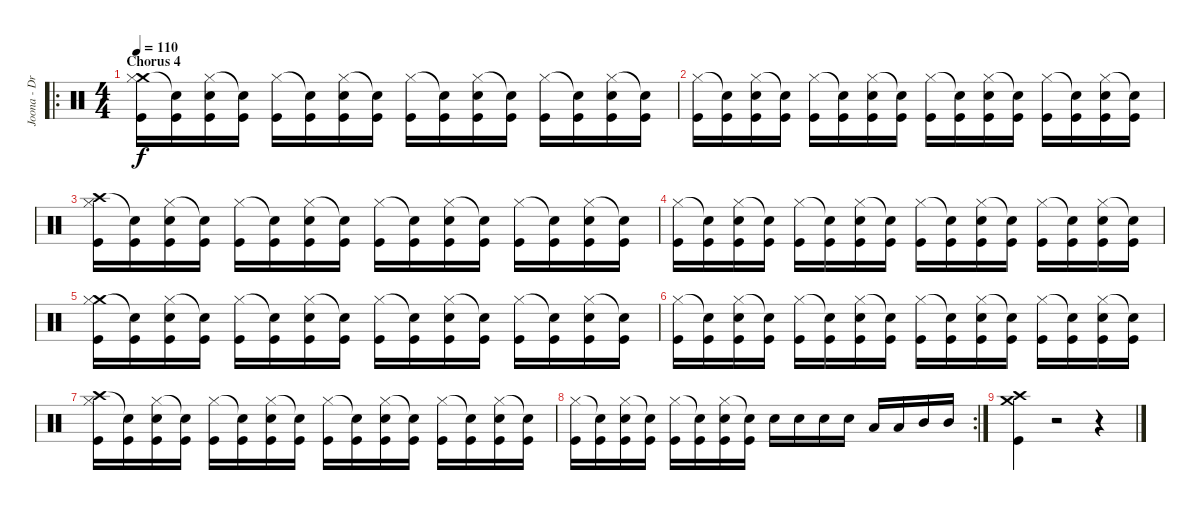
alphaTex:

\track ("Joona - Drums" "Joona - Dr") {instrument percussion}
\staff {score}
\articulation defaults
\ro
\ts (4 4)
\section ("" "Chorus 4")
\tempo 110
\clef neutral
\ks c
("Crash medium (hit)" "Hi-Hat (closed)" "Kick (hit)").16{dy f} ("Snare (hit)"{t} "Kick (hit)").16 ("Hi-Hat (closed)" "Snare (hit) 2" "Kick (hit)").16 ("Snare (hit)"{t} "Kick (hit)").16 ("Hi-Hat (closed)" "Kick (hit)").16 ("Snare (hit)"{t} "Kick (hit)").16 ("Hi-Hat (closed)" "Snare (hit) 2" "Kick (hit)").16 ("Snare (hit)"{t} "Kick (hit)").16 ("Hi-Hat (closed)" "Kick (hit)").16 ("Snare (hit)"{t} "Kick (hit)").16 ("Hi-Hat (closed)" "Snare (hit) 2" "Kick (hit)").16 ("Snare (hit)"{t} "Kick (hit)").16 ("Hi-Hat (closed)" "Kick (hit)").16 ("Snare (hit)"{t} "Kick (hit)").16 ("Hi-Hat (closed)" "Snare (hit) 2" "Kick (hit)").16 ("Snare (hit)"{t} "Kick (hit)").16 |
("Hi-Hat (closed)" "Kick (hit)").16 ("Snare (hit)"{t} "Kick (hit)").16 ("Hi-Hat (closed)" "Snare (hit) 2" "Kick (hit)").16 ("Snare (hit)"{t} "Kick (hit)").16 ("Hi-Hat (closed)" "Kick (hit)").16 ("Snare (hit)"{t} "Kick (hit)").16 ("Hi-Hat (closed)" "Snare (hit) 2" "Kick (hit)").16 ("Snare (hit)"{t} "Kick (hit)").16 ("Hi-Hat (closed)" "Kick (hit)").16 ("Snare (hit)"{t} "Kick (hit)").16 ("Hi-Hat (closed)" "Snare (hit) 2" "Kick (hit)").16 ("Snare (hit)"{t} "Kick (hit)").16 ("Hi-Hat (closed)" "Kick (hit)").16 ("Snare (hit)"{t} "Kick (hit)").16 ("Hi-Hat (closed)" "Snare (hit) 2" "Kick (hit)").16 ("Snare (hit)"{t} "Kick (hit)").16 |
("Crash high (hit)" "Hi-Hat (closed)" "Kick (hit)").16 ("Snare (hit)"{t} "Kick (hit)").16 ("Hi-Hat (closed)" "Snare (hit) 2" "Kick (hit)").16 ("Snare (hit)"{t} "Kick (hit)").16 ("Hi-Hat (closed)" "Kick (hit)").16 ("Snare (hit)"{t} "Kick (hit)").16 ("Hi-Hat (closed)" "Snare (hit) 2" "Kick (hit)").16 ("Snare (hit)"{t} "Kick (hit)").16 ("Hi-Hat (closed)" "Kick (hit)").16 ("Snare (hit)"{t} "Kick (hit)").16 ("Hi-Hat (closed)" "Snare (hit) 2" "Kick (hit)").16 ("Snare (hit)"{t} "Kick (hit)").16 ("Hi-Hat (closed)" "Kick (hit)").16 ("Snare (hit)"{t} "Kick (hit)").16 ("Hi-Hat (closed)" "Snare (hit) 2" "Kick (hit)").16 ("Snare (hit)"{t} "Kick (hit)").16 |
("Hi-Hat (closed)" "Kick (hit)").16 ("Snare (hit)"{t} "Kick (hit)").16 ("Hi-Hat (closed)" "Snare (hit) 2" "Kick (hit)").16 ("Snare (hit)"{t} "Kick (hit)").16 ("Hi-Hat (closed)" "Kick (hit)").16 ("Snare (hit)"{t} "Kick (hit)").16 ("Hi-Hat (closed)" "Snare (hit) 2" "Kick (hit)").16 ("Snare (hit)"{t} "Kick (hit)").16 ("Hi-Hat (closed)" "Kick (hit)").16 ("Snare (hit)"{t} "Kick (hit)").16 ("Hi-Hat (closed)" "Snare (hit) 2" "Kick (hit)").16 ("Snare (hit)"{t} "Kick (hit)").16 ("Hi-Hat (closed)" "Kick (hit)").16 ("Snare (hit)"{t} "Kick (hit)").16 ("Hi-Hat (closed)" "Snare (hit) 2" "Kick (hit)").16 ("Snare (hit)"{t} "Kick (hit)").16 |
("Crash medium (hit)" "Hi-Hat (closed)" "Kick (hit)").16 ("Snare (hit)"{t} "Kick (hit)").16 ("Hi-Hat (closed)" "Snare (hit) 2" "Kick (hit)").16 ("Snare (hit)"{t} "Kick (hit)").16 ("Hi-Hat (closed)" "Kick (hit)").16 ("Snare (hit)"{t} "Kick (hit)").16 ("Hi-Hat (closed)" "Snare (hit) 2" "Kick (hit)").16 ("Snare (hit)"{t} "Kick (hit)").16 ("Hi-Hat (closed)" "Kick (hit)").16 ("Snare (hit)"{t} "Kick (hit)").16 ("Hi-Hat (closed)" "Snare (hit) 2" "Kick (hit)").16 ("Snare (hit)"{t} "Kick (hit)").16 ("Hi-Hat (closed)" "Kick (hit)").16 ("Snare (hit)"{t} "Kick (hit)").16 ("Hi-Hat (closed)" "Snare (hit) 2" "Kick (hit)").16 ("Snare (hit)"{t} "Kick (hit)").16 |
("Hi-Hat (closed)" "Kick (hit)").16 ("Snare (hit)"{t} "Kick (hit)").16 ("Hi-Hat (closed)" "Snare (hit) 2" "Kick (hit)").16 ("Snare (hit)"{t} "Kick (hit)").16 ("Hi-Hat (closed)" "Kick (hit)").16 ("Snare (hit)"{t} "Kick (hit)").16 ("Hi-Hat (closed)" "Snare (hit) 2" "Kick (hit)").16 ("Snare (hit)"{t} "Kick (hit)").16 ("Hi-Hat (closed)" "Kick (hit)").16 ("Snare (hit)"{t} "Kick (hit)").16 ("Hi-Hat (closed)" "Snare (hit) 2" "Kick (hit)").16 ("Snare (hit)"{t} "Kick (hit)").16 ("Hi-Hat (closed)" "Kick (hit)").16 ("Snare (hit)"{t} "Kick (hit)").16 ("Hi-Hat (closed)" "Snare (hit) 2" "Kick (hit)").16 ("Snare (hit)"{t} "Kick (hit)").16 |
("Crash high (hit)" "Hi-Hat (closed)" "Kick (hit)").16 ("Snare (hit)"{t} "Kick (hit)").16 ("Hi-Hat (closed)" "Snare (hit) 2" "Kick (hit)").16 ("Snare (hit)"{t} "Kick (hit)").16 ("Hi-Hat (closed)" "Kick (hit)").16 ("Snare (hit)"{t} "Kick (hit)").16 ("Hi-Hat (closed)" "Snare (hit) 2" "Kick (hit)").16 ("Snare (hit)"{t} "Kick (hit)").16 ("Hi-Hat (closed)" "Kick (hit)").16 ("Snare (hit)"{t} "Kick (hit)").16 ("Hi-Hat (closed)" "Snare (hit) 2" "Kick (hit)").16 ("Snare (hit)"{t} "Kick (hit)").16 ("Hi-Hat (closed)" "Kick (hit)").16 ("Snare (hit)"{t} "Kick (hit)").16 ("Hi-Hat (closed)" "Snare (hit) 2" "Kick (hit)").16 ("Snare (hit)"{t} "Kick (hit)").16 |
\rc 2
("Hi-Hat (closed)" "Kick (hit)").16 ("Snare (hit)"{t} "Kick (hit)").16 ("Hi-Hat (closed)" "Snare (hit) 2" "Kick (hit)").16 ("Snare (hit)"{t} "Kick (hit)").16 ("Hi-Hat (closed)" "Kick (hit)").16 ("Snare (hit)"{t} "Kick (hit)").16 ("Hi-Hat (closed)" "Snare (hit) 2" "Kick (hit)").16 ("Snare (hit)"{t} "Kick (hit)").16 "Snare (hit) 2".16 "Snare (hit) 2".16 "Snare (hit) 2".16 "Snare (hit) 2".16 "Low Tom (hit)".16 "Low Tom (hit)".16 "Mid Tom (hit)".16 "Mid Tom (hit)".16 |
("Crash medium (hit)" "Crash high (hit)" "Kick (hit)").4 r.2 r.4
